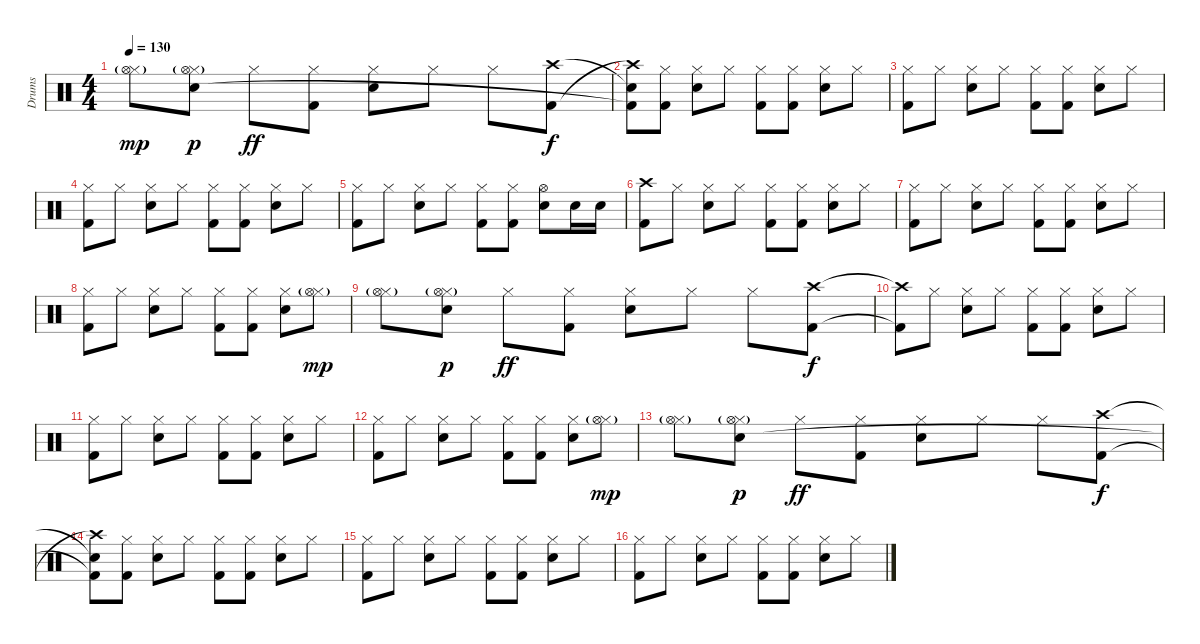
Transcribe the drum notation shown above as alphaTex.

\track ("Drums" "Drums") {instrument percussion}
\staff {score}
\articulation defaults
\ts (4 4)
\tempo 130
\clef neutral
\ks c
("Hi-Hat (closed)" "Hi-Hat (open)"{g}).8{dy mp} ("Hi-Hat (closed)" "Hi-Hat (open)"{g} "Electric Snare (hit)").8{dy p} "Hi-Hat (closed)".8{dy ff} ("Hi-Hat (closed)" "Kick (hit) 2").8 ("Hi-Hat (closed)" "Electric Snare (hit)").8 "Hi-Hat (closed)".8 "Hi-Hat (closed)".8 ("Crash high (hit)" "Kick (hit) 2").8{dy f} |
("Snare (hit)"{t} "Crash high (hit)"{t} "Kick (hit) 2"{t}).8 ("Hi-Hat (closed)" "Kick (hit) 2").8 ("Hi-Hat (closed)" "Electric Snare (hit)").8 "Hi-Hat (closed)".8 ("Hi-Hat (closed)" "Kick (hit) 2").8 ("Hi-Hat (closed)" "Kick (hit) 2").8 ("Hi-Hat (closed)" "Electric Snare (hit)").8 "Hi-Hat (closed)".8 |
("Hi-Hat (closed)" "Kick (hit) 2").8 "Hi-Hat (closed)".8 ("Hi-Hat (closed)" "Electric Snare (hit)").8 "Hi-Hat (closed)".8 ("Hi-Hat (closed)" "Kick (hit) 2").8 ("Hi-Hat (closed)" "Kick (hit) 2").8 ("Hi-Hat (closed)" "Electric Snare (hit)").8 "Hi-Hat (closed)".8 |
("Hi-Hat (closed)" "Kick (hit) 2").8 "Hi-Hat (closed)".8 ("Hi-Hat (closed)" "Electric Snare (hit)").8 "Hi-Hat (closed)".8 ("Hi-Hat (closed)" "Kick (hit) 2").8 ("Hi-Hat (closed)" "Kick (hit) 2").8 ("Hi-Hat (closed)" "Electric Snare (hit)").8 "Hi-Hat (closed)".8 |
("Hi-Hat (closed)" "Kick (hit) 2").8 "Hi-Hat (closed)".8 ("Hi-Hat (closed)" "Electric Snare (hit)").8 "Hi-Hat (closed)".8 ("Hi-Hat (closed)" "Kick (hit) 2").8 ("Hi-Hat (closed)" "Kick (hit) 2").8 ("Hi-Hat (open)" "Electric Snare (hit)").8 "Electric Snare (hit)".16 "Electric Snare (hit)".16 |
("Crash high (hit)" "Kick (hit) 2").8 "Hi-Hat (closed)".8 ("Hi-Hat (closed)" "Electric Snare (hit)").8 "Hi-Hat (closed)".8 ("Hi-Hat (closed)" "Kick (hit) 2").8 ("Hi-Hat (closed)" "Kick (hit) 2").8 ("Hi-Hat (closed)" "Electric Snare (hit)").8 "Hi-Hat (closed)".8 |
("Hi-Hat (closed)" "Kick (hit) 2").8 "Hi-Hat (closed)".8 ("Hi-Hat (closed)" "Electric Snare (hit)").8 "Hi-Hat (closed)".8 ("Hi-Hat (closed)" "Kick (hit) 2").8 ("Hi-Hat (closed)" "Kick (hit) 2").8 ("Hi-Hat (closed)" "Electric Snare (hit)").8 "Hi-Hat (closed)".8 |
("Hi-Hat (closed)" "Kick (hit) 2").8 "Hi-Hat (closed)".8 ("Hi-Hat (closed)" "Electric Snare (hit)").8 "Hi-Hat (closed)".8 ("Hi-Hat (closed)" "Kick (hit) 2").8 ("Hi-Hat (closed)" "Kick (hit) 2").8 ("Hi-Hat (closed)" "Electric Snare (hit)").8 ("Hi-Hat (closed)" "Hi-Hat (open)"{g}).8{dy mp} |
("Hi-Hat (closed)" "Hi-Hat (open)"{g}).8 ("Hi-Hat (closed)" "Hi-Hat (open)"{g} "Electric Snare (hit)").8{dy p} "Hi-Hat (closed)".8{dy ff} ("Hi-Hat (closed)" "Kick (hit) 2").8 ("Hi-Hat (closed)" "Electric Snare (hit)").8 "Hi-Hat (closed)".8 "Hi-Hat (closed)".8 ("Crash high (hit)" "Kick (hit) 2").8{dy f} |
("Crash high (hit)"{t} "Kick (hit) 2"{t}).8 "Hi-Hat (closed)".8 ("Hi-Hat (closed)" "Electric Snare (hit)").8 "Hi-Hat (closed)".8 ("Hi-Hat (closed)" "Kick (hit) 2").8 ("Hi-Hat (closed)" "Kick (hit) 2").8 ("Hi-Hat (closed)" "Electric Snare (hit)").8 "Hi-Hat (closed)".8 |
("Hi-Hat (closed)" "Kick (hit) 2").8 "Hi-Hat (closed)".8 ("Hi-Hat (closed)" "Electric Snare (hit)").8 "Hi-Hat (closed)".8 ("Hi-Hat (closed)" "Kick (hit) 2").8 ("Hi-Hat (closed)" "Kick (hit) 2").8 ("Hi-Hat (closed)" "Electric Snare (hit)").8 "Hi-Hat (closed)".8 |
("Hi-Hat (closed)" "Kick (hit) 2").8 "Hi-Hat (closed)".8 ("Hi-Hat (closed)" "Electric Snare (hit)").8 "Hi-Hat (closed)".8 ("Hi-Hat (closed)" "Kick (hit) 2").8 ("Hi-Hat (closed)" "Kick (hit) 2").8 ("Hi-Hat (closed)" "Electric Snare (hit)").8 ("Hi-Hat (closed)" "Hi-Hat (open)"{g}).8{dy mp} |
("Hi-Hat (closed)" "Hi-Hat (open)"{g}).8 ("Hi-Hat (closed)" "Hi-Hat (open)"{g} "Electric Snare (hit)").8{dy p} "Hi-Hat (closed)".8{dy ff} ("Hi-Hat (closed)" "Kick (hit) 2").8 ("Hi-Hat (closed)" "Electric Snare (hit)").8 "Hi-Hat (closed)".8 "Hi-Hat (closed)".8 ("Crash high (hit)" "Kick (hit) 2").8{dy f} |
("Snare (hit)"{t} "Crash high (hit)"{t} "Kick (hit) 2"{t}).8 ("Hi-Hat (closed)" "Kick (hit) 2").8 ("Hi-Hat (closed)" "Electric Snare (hit)").8 "Hi-Hat (closed)".8 ("Hi-Hat (closed)" "Kick (hit) 2").8 ("Hi-Hat (closed)" "Kick (hit) 2").8 ("Hi-Hat (closed)" "Electric Snare (hit)").8 "Hi-Hat (closed)".8 |
("Hi-Hat (closed)" "Kick (hit) 2").8 "Hi-Hat (closed)".8 ("Hi-Hat (closed)" "Electric Snare (hit)").8 "Hi-Hat (closed)".8 ("Hi-Hat (closed)" "Kick (hit) 2").8 ("Hi-Hat (closed)" "Kick (hit) 2").8 ("Hi-Hat (closed)" "Electric Snare (hit)").8 "Hi-Hat (closed)".8 |
("Hi-Hat (closed)" "Kick (hit) 2").8 "Hi-Hat (closed)".8 ("Hi-Hat (closed)" "Electric Snare (hit)").8 "Hi-Hat (closed)".8 ("Hi-Hat (closed)" "Kick (hit) 2").8 ("Hi-Hat (closed)" "Kick (hit) 2").8 ("Hi-Hat (closed)" "Electric Snare (hit)").8 "Hi-Hat (closed)".8
